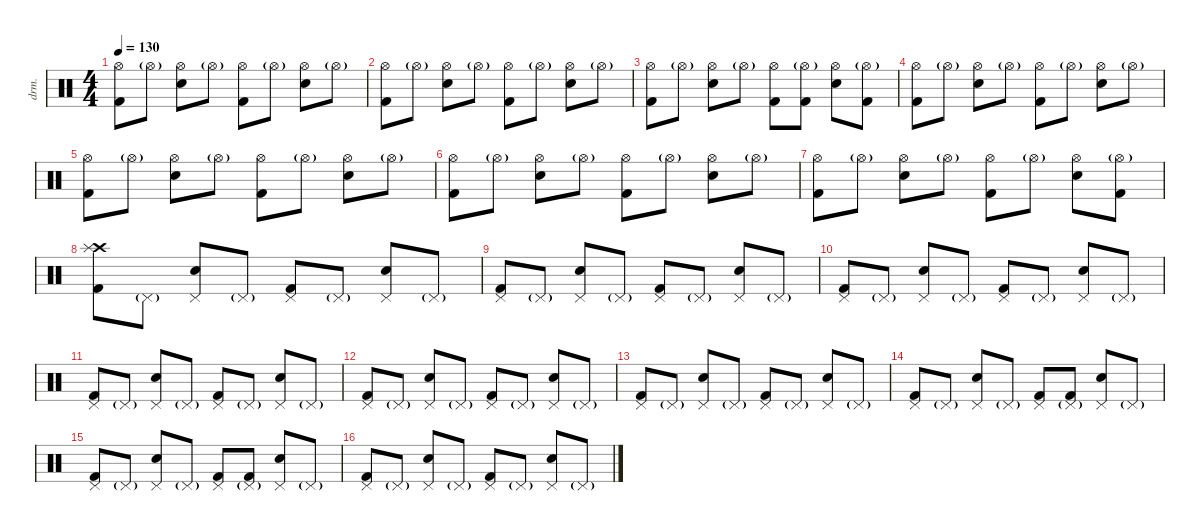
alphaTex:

\defaultSystemsLayout 4
\hideDynamics
\bracketExtendMode nobrackets
\otherSystemsTrackNameOrientation horizontal
\track ("Percussion" "drm.") {instrument percussion}
\staff {score}
\articulation defaults
\ts (4 4)
\tempo 130
\clef neutral
\ks c
("Hi-Hat (open)" "Kick (hit) 2").8{dy f} "Hi-Hat (open)"{g}.8 ("Hi-Hat (open)" "Snare (hit) 2").8 "Hi-Hat (open)"{g}.8 ("Hi-Hat (open)" "Kick (hit) 2").8 "Hi-Hat (open)"{g}.8 ("Hi-Hat (open)" "Snare (hit) 2").8 "Hi-Hat (open)"{g}.8 |
("Hi-Hat (open)" "Kick (hit) 2").8 "Hi-Hat (open)"{g}.8 ("Hi-Hat (open)" "Snare (hit) 2").8 "Hi-Hat (open)"{g}.8 ("Hi-Hat (open)" "Kick (hit) 2").8 "Hi-Hat (open)"{g}.8 ("Hi-Hat (open)" "Snare (hit) 2").8 "Hi-Hat (open)"{g}.8 |
("Hi-Hat (open)" "Kick (hit) 2").8 "Hi-Hat (open)"{g}.8 ("Hi-Hat (open)" "Snare (hit) 2").8 "Hi-Hat (open)"{g}.8 ("Hi-Hat (open)" "Kick (hit) 2").8 ("Hi-Hat (open)"{g} "Kick (hit) 2").8 ("Hi-Hat (open)" "Snare (hit) 2").8 ("Hi-Hat (open)"{g} "Kick (hit) 2").8 |
("Hi-Hat (open)" "Kick (hit) 2").8 "Hi-Hat (open)"{g}.8 ("Hi-Hat (open)" "Snare (hit) 2").8 "Hi-Hat (open)"{g}.8 ("Hi-Hat (open)" "Kick (hit) 2").8 "Hi-Hat (open)"{g}.8 ("Hi-Hat (open)" "Snare (hit) 2").8 "Hi-Hat (open)"{g}.8 |
("Hi-Hat (open)" "Kick (hit) 2").8 "Hi-Hat (open)"{g}.8 ("Hi-Hat (open)" "Snare (hit) 2").8 "Hi-Hat (open)"{g}.8 ("Hi-Hat (open)" "Kick (hit) 2").8 "Hi-Hat (open)"{g}.8 ("Hi-Hat (open)" "Snare (hit) 2").8 "Hi-Hat (open)"{g}.8 |
("Hi-Hat (open)" "Kick (hit) 2").8 "Hi-Hat (open)"{g}.8 ("Hi-Hat (open)" "Snare (hit) 2").8 "Hi-Hat (open)"{g}.8 ("Hi-Hat (open)" "Kick (hit) 2").8 "Hi-Hat (open)"{g}.8 ("Hi-Hat (open)" "Snare (hit) 2").8 "Hi-Hat (open)"{g}.8 |
("Hi-Hat (open)" "Kick (hit) 2").8 "Hi-Hat (open)"{g}.8 ("Hi-Hat (open)" "Snare (hit) 2").8 "Hi-Hat (open)"{g}.8 ("Hi-Hat (open)" "Kick (hit) 2").8 "Hi-Hat (open)"{g}.8 ("Hi-Hat (open)" "Snare (hit) 2").8 ("Hi-Hat (open)"{g} "Kick (hit) 2").8 |
("Crash high (hit)" "Splash (hit)" "Kick (hit) 2").8{dy ff} "Pedal Hi-Hat (hit)"{g}.8{dy f} ("Pedal Hi-Hat (hit)" "Snare (hit) 2").8 "Pedal Hi-Hat (hit)"{g}.8 ("Pedal Hi-Hat (hit)" "Kick (hit) 2").8 "Pedal Hi-Hat (hit)"{g}.8 ("Pedal Hi-Hat (hit)" "Snare (hit) 2").8 "Pedal Hi-Hat (hit)"{g}.8 |
("Pedal Hi-Hat (hit)" "Kick (hit) 2").8 "Pedal Hi-Hat (hit)"{g}.8 ("Pedal Hi-Hat (hit)" "Snare (hit) 2").8 "Pedal Hi-Hat (hit)"{g}.8 ("Pedal Hi-Hat (hit)" "Kick (hit) 2").8 "Pedal Hi-Hat (hit)"{g}.8 ("Pedal Hi-Hat (hit)" "Snare (hit) 2").8 "Pedal Hi-Hat (hit)"{g}.8 |
("Pedal Hi-Hat (hit)" "Kick (hit) 2").8 "Pedal Hi-Hat (hit)"{g}.8 ("Pedal Hi-Hat (hit)" "Snare (hit) 2").8 "Pedal Hi-Hat (hit)"{g}.8 ("Pedal Hi-Hat (hit)" "Kick (hit) 2").8 "Pedal Hi-Hat (hit)"{g}.8 ("Pedal Hi-Hat (hit)" "Snare (hit) 2").8 "Pedal Hi-Hat (hit)"{g}.8 |
("Pedal Hi-Hat (hit)" "Kick (hit) 2").8 "Pedal Hi-Hat (hit)"{g}.8 ("Pedal Hi-Hat (hit)" "Snare (hit) 2").8 "Pedal Hi-Hat (hit)"{g}.8 ("Pedal Hi-Hat (hit)" "Kick (hit) 2").8 "Pedal Hi-Hat (hit)"{g}.8 ("Pedal Hi-Hat (hit)" "Snare (hit) 2").8 "Pedal Hi-Hat (hit)"{g}.8 |
("Pedal Hi-Hat (hit)" "Kick (hit) 2").8 "Pedal Hi-Hat (hit)"{g}.8 ("Pedal Hi-Hat (hit)" "Snare (hit) 2").8 "Pedal Hi-Hat (hit)"{g}.8 ("Pedal Hi-Hat (hit)" "Kick (hit) 2").8 "Pedal Hi-Hat (hit)"{g}.8 ("Pedal Hi-Hat (hit)" "Snare (hit) 2").8 "Pedal Hi-Hat (hit)"{g}.8 |
("Pedal Hi-Hat (hit)" "Kick (hit) 2").8 "Pedal Hi-Hat (hit)"{g}.8 ("Pedal Hi-Hat (hit)" "Snare (hit) 2").8 "Pedal Hi-Hat (hit)"{g}.8 ("Pedal Hi-Hat (hit)" "Kick (hit) 2").8 "Pedal Hi-Hat (hit)"{g}.8 ("Pedal Hi-Hat (hit)" "Snare (hit) 2").8 "Pedal Hi-Hat (hit)"{g}.8 |
("Pedal Hi-Hat (hit)" "Kick (hit) 2").8 "Pedal Hi-Hat (hit)"{g}.8 ("Pedal Hi-Hat (hit)" "Snare (hit) 2").8 "Pedal Hi-Hat (hit)"{g}.8 ("Pedal Hi-Hat (hit)" "Kick (hit) 2").8 ("Pedal Hi-Hat (hit)"{g} "Kick (hit) 2").8 ("Pedal Hi-Hat (hit)" "Snare (hit) 2").8 "Pedal Hi-Hat (hit)"{g}.8 |
("Pedal Hi-Hat (hit)" "Kick (hit) 2").8 "Pedal Hi-Hat (hit)"{g}.8 ("Pedal Hi-Hat (hit)" "Snare (hit) 2").8 "Pedal Hi-Hat (hit)"{g}.8 ("Pedal Hi-Hat (hit)" "Kick (hit) 2").8 ("Pedal Hi-Hat (hit)"{g} "Kick (hit) 2").8 ("Pedal Hi-Hat (hit)" "Snare (hit) 2").8 "Pedal Hi-Hat (hit)"{g}.8 |
("Pedal Hi-Hat (hit)" "Kick (hit) 2").8 "Pedal Hi-Hat (hit)"{g}.8 ("Pedal Hi-Hat (hit)" "Snare (hit) 2").8 "Pedal Hi-Hat (hit)"{g}.8 ("Pedal Hi-Hat (hit)" "Kick (hit) 2").8 "Pedal Hi-Hat (hit)"{g}.8 ("Pedal Hi-Hat (hit)" "Snare (hit) 2").8 "Pedal Hi-Hat (hit)"{g}.8
